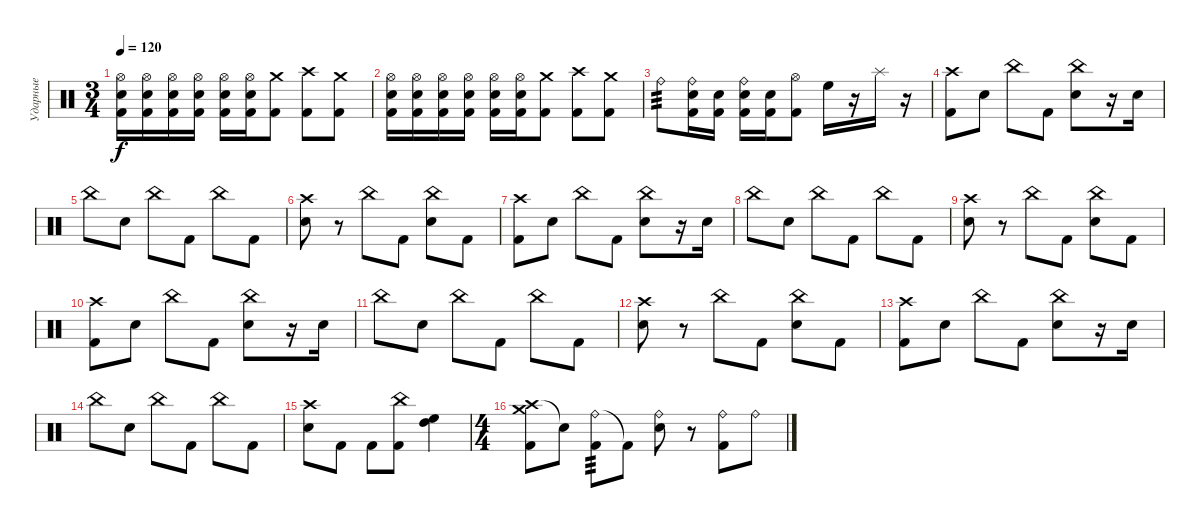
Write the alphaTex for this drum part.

\track ("Ударные" "Ударные") {instrument percussion}
\staff {score}
\articulation defaults
\ts (3 4)
\tempo 120
\clef neutral
\ks c
("Hi-Hat (open)" "Electric Snare (hit)" "Kick (hit) 2").16{dy f} ("Hi-Hat (open)" "Electric Snare (hit)" "Kick (hit) 2").16 ("Hi-Hat (open)" "Electric Snare (hit)" "Kick (hit) 2").16 ("Hi-Hat (open)" "Electric Snare (hit)" "Kick (hit) 2").16 ("Hi-Hat (open)" "Electric Snare (hit)" "Kick (hit) 2").16 ("Hi-Hat (open)" "Electric Snare (hit)" "Kick (hit) 2").16 ("Crash medium (hit)" "Kick (hit) 2").8 ("Crash high (hit)" "Kick (hit) 2").8 ("Crash medium (hit)" "Kick (hit) 2").8 |
("Hi-Hat (open)" "Electric Snare (hit)" "Kick (hit) 2").16 ("Hi-Hat (open)" "Electric Snare (hit)" "Kick (hit) 2").16 ("Hi-Hat (open)" "Electric Snare (hit)" "Kick (hit) 2").16 ("Hi-Hat (open)" "Electric Snare (hit)" "Kick (hit) 2").16 ("Hi-Hat (open)" "Electric Snare (hit)" "Kick (hit) 2").16 ("Hi-Hat (open)" "Electric Snare (hit)" "Kick (hit) 2").16 ("Crash medium (hit)" "Kick (hit) 2").8 ("Crash high (hit)" "Kick (hit) 2").8 ("Crash medium (hit)" "Kick (hit) 2").8 |
"Ride (bell)".8{tp 3} ("Ride (bell)" "Electric Snare (hit)" "Kick (hit) 2").16 ("Electric Snare (hit)" "Kick (hit) 2").16 ("Ride (bell)" "Electric Snare (hit)" "Kick (hit) 2").16 ("Electric Snare (hit)" "Kick (hit) 2").16 ("Hi-Hat (open)" "Kick (hit) 2").8 "High Floor Tom (hit)".16 r.16 "Splash (hit)".16 r.16 |
("Crash high (hit)" "Kick (hit) 2").8 "Electric Snare (hit)".8 "China (hit)".8 "Kick (hit) 2".8 ("China (hit)" "Electric Snare (hit)").8 r.16 "Electric Snare (hit)".16 |
"China (hit)".8 "Electric Snare (hit)".8 "China (hit)".8 "Kick (hit) 2".8 "China (hit)".8 "Kick (hit) 2".8 |
("Crash high (hit)" "Electric Snare (hit)").8 r.8 "China (hit)".8 "Kick (hit) 2".8 ("China (hit)" "Electric Snare (hit)").8 "Kick (hit) 2".8 |
("Crash high (hit)" "Kick (hit) 2").8 "Electric Snare (hit)".8 "China (hit)".8 "Kick (hit) 2".8 ("China (hit)" "Electric Snare (hit)").8 r.16 "Electric Snare (hit)".16 |
"China (hit)".8 "Electric Snare (hit)".8 "China (hit)".8 "Kick (hit) 2".8 "China (hit)".8 "Kick (hit) 2".8 |
("Crash high (hit)" "Electric Snare (hit)").8 r.8 "China (hit)".8 "Kick (hit) 2".8 ("China (hit)" "Electric Snare (hit)").8 "Kick (hit) 2".8 |
("Crash high (hit)" "Kick (hit) 2").8 "Electric Snare (hit)".8 "China (hit)".8 "Kick (hit) 2".8 ("China (hit)" "Electric Snare (hit)").8 r.16 "Electric Snare (hit)".16 |
"China (hit)".8 "Electric Snare (hit)".8 "China (hit)".8 "Kick (hit) 2".8 "China (hit)".8 "Kick (hit) 2".8 |
("Crash high (hit)" "Electric Snare (hit)").8 r.8 "China (hit)".8 "Kick (hit) 2".8 ("China (hit)" "Electric Snare (hit)").8 "Kick (hit) 2".8 |
("Crash high (hit)" "Kick (hit) 2").8 "Electric Snare (hit)".8 "China (hit)".8 "Kick (hit) 2".8 ("China (hit)" "Electric Snare (hit)").8 r.16 "Electric Snare (hit)".16 |
"China (hit)".8 "Electric Snare (hit)".8 "China (hit)".8 "Kick (hit) 2".8 "China (hit)".8 "Kick (hit) 2".8 |
("Crash high (hit)" "Electric Snare (hit)").8 "Kick (hit) 2".8 "Kick (hit) 2".8 ("China (hit)" "Kick (hit) 2").8 ("High Tom (hit)" "High Floor Tom (hit)").4 |
\ts (4 4)
("Crash high (hit)" "Crash medium (hit)" "Kick (hit) 2").8 "Snare (hit)"{t}.8 ("Ride (bell)" "Kick (hit) 2").8{tp 3} "Kick (hit) 2"{t}.8 ("Ride (bell)" "Electric Snare (hit)").8 r.8 ("Ride (bell)" "Kick (hit) 2").8 "Ride (bell)".8
